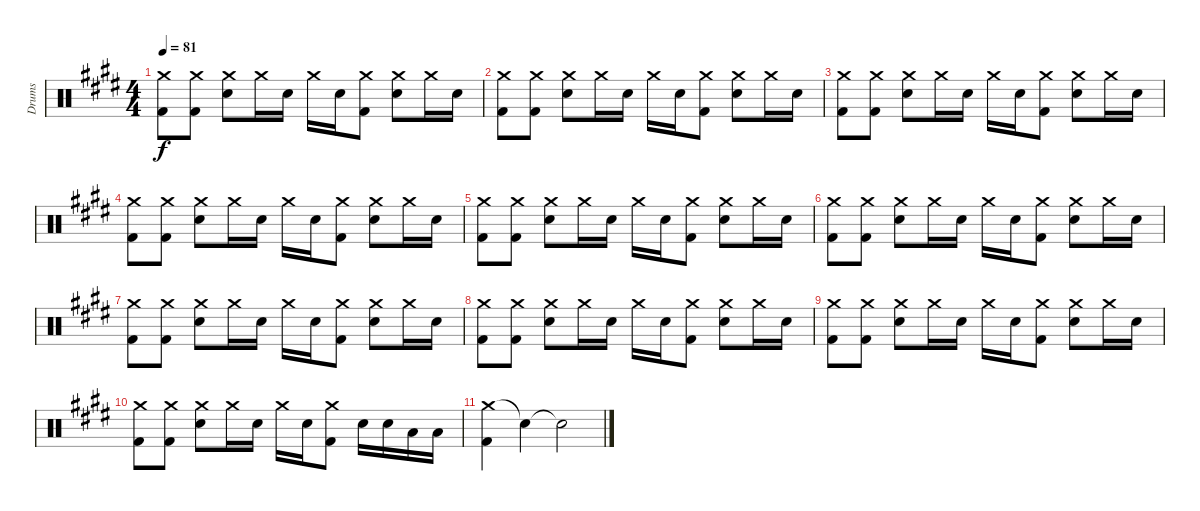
\track ("Drums" "Drums") {instrument percussion}
\staff {score}
\articulation defaults
\ts (4 4)
\tempo 81
\clef neutral
\ks c#minor
("Crash medium (hit)" "Kick (hit) 2").8{dy f} ("Crash medium (hit)" "Kick (hit) 2").8 ("Crash medium (hit)" "Electric Snare (hit)").8 "Crash medium (hit)".16 "Electric Snare (hit)".16 "Crash medium (hit)".16 "Electric Snare (hit)".16 ("Crash medium (hit)" "Kick (hit) 2").8 ("Crash medium (hit)" "Electric Snare (hit)").8 "Crash medium (hit)".16 "Electric Snare (hit)".16 |
("Crash medium (hit)" "Kick (hit) 2").8 ("Crash medium (hit)" "Kick (hit) 2").8 ("Crash medium (hit)" "Electric Snare (hit)").8 "Crash medium (hit)".16 "Electric Snare (hit)".16 "Crash medium (hit)".16 "Electric Snare (hit)".16 ("Crash medium (hit)" "Kick (hit) 2").8 ("Crash medium (hit)" "Electric Snare (hit)").8 "Crash medium (hit)".16 "Electric Snare (hit)".16 |
("Crash medium (hit)" "Kick (hit) 2").8 ("Crash medium (hit)" "Kick (hit) 2").8 ("Crash medium (hit)" "Electric Snare (hit)").8 "Crash medium (hit)".16 "Electric Snare (hit)".16 "Crash medium (hit)".16 "Electric Snare (hit)".16 ("Crash medium (hit)" "Kick (hit) 2").8 ("Crash medium (hit)" "Electric Snare (hit)").8 "Crash medium (hit)".16 "Electric Snare (hit)".16 |
("Crash medium (hit)" "Kick (hit) 2").8 ("Crash medium (hit)" "Kick (hit) 2").8 ("Crash medium (hit)" "Electric Snare (hit)").8 "Crash medium (hit)".16 "Electric Snare (hit)".16 "Crash medium (hit)".16 "Electric Snare (hit)".16 ("Crash medium (hit)" "Kick (hit) 2").8 ("Crash medium (hit)" "Electric Snare (hit)").8 "Crash medium (hit)".16 "Electric Snare (hit)".16 |
("Crash medium (hit)" "Kick (hit) 2").8 ("Crash medium (hit)" "Kick (hit) 2").8 ("Crash medium (hit)" "Electric Snare (hit)").8 "Crash medium (hit)".16 "Electric Snare (hit)".16 "Crash medium (hit)".16 "Electric Snare (hit)".16 ("Crash medium (hit)" "Kick (hit) 2").8 ("Crash medium (hit)" "Electric Snare (hit)").8 "Crash medium (hit)".16 "Electric Snare (hit)".16 |
("Crash medium (hit)" "Kick (hit) 2").8 ("Crash medium (hit)" "Kick (hit) 2").8 ("Crash medium (hit)" "Electric Snare (hit)").8 "Crash medium (hit)".16 "Electric Snare (hit)".16 "Crash medium (hit)".16 "Electric Snare (hit)".16 ("Crash medium (hit)" "Kick (hit) 2").8 ("Crash medium (hit)" "Electric Snare (hit)").8 "Crash medium (hit)".16 "Electric Snare (hit)".16 |
("Crash medium (hit)" "Kick (hit) 2").8 ("Crash medium (hit)" "Kick (hit) 2").8 ("Crash medium (hit)" "Electric Snare (hit)").8 "Crash medium (hit)".16 "Electric Snare (hit)".16 "Crash medium (hit)".16 "Electric Snare (hit)".16 ("Crash medium (hit)" "Kick (hit) 2").8 ("Crash medium (hit)" "Electric Snare (hit)").8 "Crash medium (hit)".16 "Electric Snare (hit)".16 |
("Crash medium (hit)" "Kick (hit) 2").8 ("Crash medium (hit)" "Kick (hit) 2").8 ("Crash medium (hit)" "Electric Snare (hit)").8 "Crash medium (hit)".16 "Electric Snare (hit)".16 "Crash medium (hit)".16 "Electric Snare (hit)".16 ("Crash medium (hit)" "Kick (hit) 2").8 ("Crash medium (hit)" "Electric Snare (hit)").8 "Crash medium (hit)".16 "Electric Snare (hit)".16 |
("Crash medium (hit)" "Kick (hit) 2").8 ("Crash medium (hit)" "Kick (hit) 2").8 ("Crash medium (hit)" "Electric Snare (hit)").8 "Crash medium (hit)".16 "Electric Snare (hit)".16 "Crash medium (hit)".16 "Electric Snare (hit)".16 ("Crash medium (hit)" "Kick (hit) 2").8 ("Crash medium (hit)" "Electric Snare (hit)").8 "Crash medium (hit)".16 "Electric Snare (hit)".16 |
("Crash medium (hit)" "Kick (hit) 2").8 ("Crash medium (hit)" "Kick (hit) 2").8 ("Crash medium (hit)" "Electric Snare (hit)").8 "Crash medium (hit)".16 "Electric Snare (hit)".16 "Crash medium (hit)".16 "Electric Snare (hit)".16 ("Crash medium (hit)" "Kick (hit) 2").8 "Electric Snare (hit)".16 "Electric Snare (hit)".16 "Low Tom (hit)".16 "Low Tom (hit)".16 |
("Crash medium (hit)" "Kick (hit) 2").4 "Snare (hit)"{t}.4 "Snare (hit)"{t}.2
